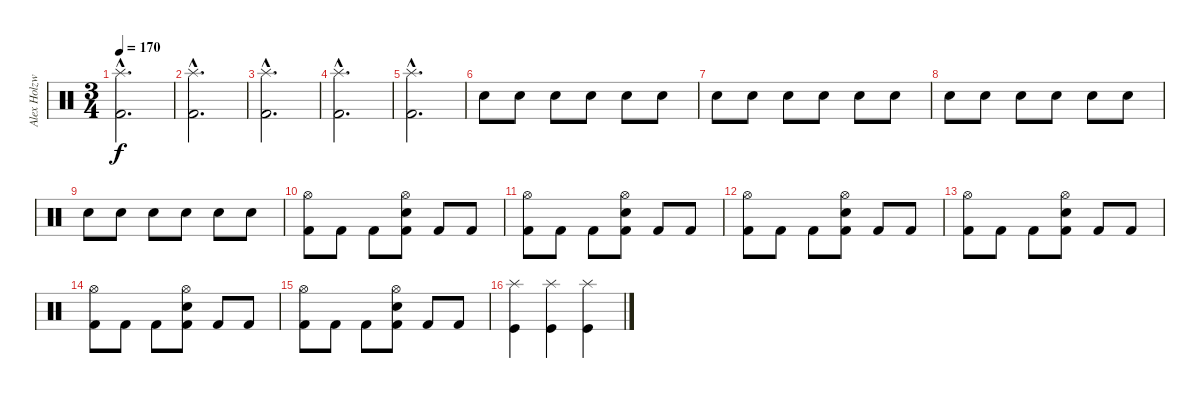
\track ("Alex Holzwarth - Drums" "Alex Holzw") {instrument percussion}
\staff {score}
\articulation defaults
\ts (3 4)
\tempo 170
\clef neutral
\ks c
("Splash (hit)"{hac} "Kick (hit) 2"{hac}).2{d dy f} |
("Splash (hit)"{hac} "Kick (hit) 2"{hac}).2{d} |
("Splash (hit)"{hac} "Kick (hit) 2"{hac}).2{d} |
("Splash (hit)"{hac} "Kick (hit) 2"{hac}).2{d} |
("Splash (hit)"{hac} "Kick (hit) 2"{hac}).2{d} |
"Snare (hit) 2".8{volume 0} "Snare (hit) 2".8{volume 15} "Snare (hit) 2".8 "Snare (hit) 2".8 "Snare (hit) 2".8 "Snare (hit) 2".8 |
"Snare (hit) 2".8 "Snare (hit) 2".8 "Snare (hit) 2".8 "Snare (hit) 2".8 "Snare (hit) 2".8 "Snare (hit) 2".8 |
"Snare (hit) 2".8 "Snare (hit) 2".8 "Snare (hit) 2".8 "Snare (hit) 2".8 "Snare (hit) 2".8 "Snare (hit) 2".8 |
"Snare (hit) 2".8 "Snare (hit) 2".8 "Snare (hit) 2".8 "Snare (hit) 2".8 "Snare (hit) 2".8 "Snare (hit) 2".8 |
("Hi-Hat (open)" "Kick (hit) 2").8 "Kick (hit) 2".8 "Kick (hit) 2".8 ("Hi-Hat (open)" "Snare (hit) 2" "Kick (hit) 2").8 "Kick (hit) 2".8 "Kick (hit) 2".8 |
("Hi-Hat (open)" "Kick (hit) 2").8 "Kick (hit) 2".8 "Kick (hit) 2".8 ("Hi-Hat (open)" "Snare (hit) 2" "Kick (hit) 2").8 "Kick (hit) 2".8 "Kick (hit) 2".8 |
("Hi-Hat (open)" "Kick (hit) 2").8 "Kick (hit) 2".8 "Kick (hit) 2".8 ("Hi-Hat (open)" "Snare (hit) 2" "Kick (hit) 2").8 "Kick (hit) 2".8 "Kick (hit) 2".8 |
("Hi-Hat (open)" "Kick (hit) 2").8 "Kick (hit) 2".8 "Kick (hit) 2".8 ("Hi-Hat (open)" "Snare (hit) 2" "Kick (hit) 2").8 "Kick (hit) 2".8 "Kick (hit) 2".8 |
("Hi-Hat (open)" "Kick (hit) 2").8 "Kick (hit) 2".8 "Kick (hit) 2".8 ("Hi-Hat (open)" "Snare (hit) 2" "Kick (hit) 2").8 "Kick (hit) 2".8 "Kick (hit) 2".8 |
("Hi-Hat (open)" "Kick (hit) 2").8 "Kick (hit) 2".8 "Kick (hit) 2".8 ("Hi-Hat (open)" "Snare (hit) 2" "Kick (hit) 2").8 "Kick (hit) 2".8 "Kick (hit) 2".8 |
("Splash (hit)" "Kick (hit)").4 ("Splash (hit)" "Kick (hit)").4 ("Splash (hit)" "Kick (hit)").4
